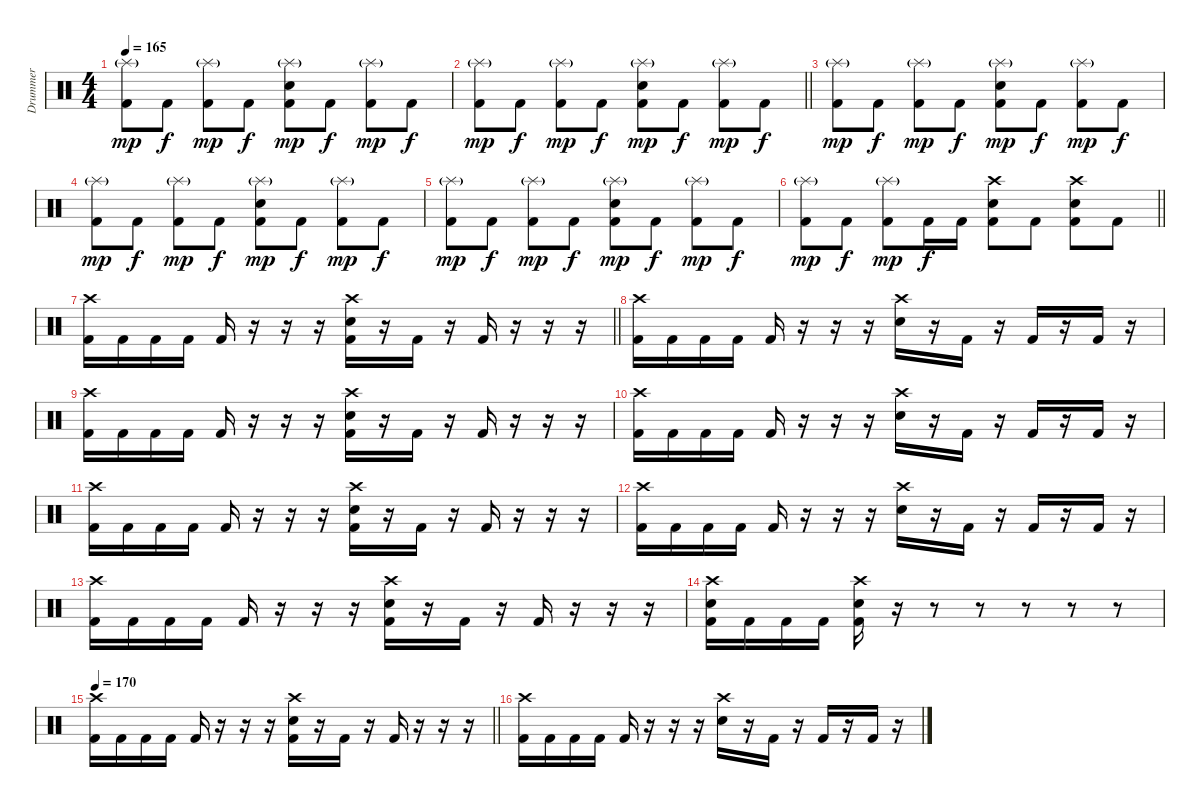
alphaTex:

\track ("Drummer" "Drummer") {instrument percussion}
\staff {score}
\articulation defaults
\ts (4 4)
\tempo 165
\clef neutral
\ks c
("Splash (hit)"{g} "Kick (hit) 2").8{dy mp} "Kick (hit) 2".8{dy f} ("Splash (hit)"{g} "Kick (hit) 2").8{dy mp} "Kick (hit) 2".8{dy f} ("Splash (hit)"{g} "Snare (hit) 2" "Kick (hit) 2").8{dy mp} "Kick (hit) 2".8{dy f} ("Splash (hit)"{g} "Kick (hit) 2").8{dy mp} "Kick (hit) 2".8{dy f} |
\barLineRight lightlight
("Splash (hit)"{g} "Kick (hit) 2").8{dy mp} "Kick (hit) 2".8{dy f} ("Splash (hit)"{g} "Kick (hit) 2").8{dy mp} "Kick (hit) 2".8{dy f} ("Splash (hit)"{g} "Snare (hit) 2" "Kick (hit) 2").8{dy mp} "Kick (hit) 2".8{dy f} ("Splash (hit)"{g} "Kick (hit) 2").8{dy mp} "Kick (hit) 2".8{dy f} |
("Splash (hit)"{g} "Kick (hit) 2").8{dy mp} "Kick (hit) 2".8{dy f} ("Splash (hit)"{g} "Kick (hit) 2").8{dy mp} "Kick (hit) 2".8{dy f} ("Splash (hit)"{g} "Snare (hit) 2" "Kick (hit) 2").8{dy mp} "Kick (hit) 2".8{dy f} ("Splash (hit)"{g} "Kick (hit) 2").8{dy mp} "Kick (hit) 2".8{dy f} |
("Splash (hit)"{g} "Kick (hit) 2").8{dy mp} "Kick (hit) 2".8{dy f} ("Splash (hit)"{g} "Kick (hit) 2").8{dy mp} "Kick (hit) 2".8{dy f} ("Splash (hit)"{g} "Snare (hit) 2" "Kick (hit) 2").8{dy mp} "Kick (hit) 2".8{dy f} ("Splash (hit)"{g} "Kick (hit) 2").8{dy mp} "Kick (hit) 2".8{dy f} |
("Splash (hit)"{g} "Kick (hit) 2").8{dy mp} "Kick (hit) 2".8{dy f} ("Splash (hit)"{g} "Kick (hit) 2").8{dy mp} "Kick (hit) 2".8{dy f} ("Splash (hit)"{g} "Snare (hit) 2" "Kick (hit) 2").8{dy mp} "Kick (hit) 2".8{dy f} ("Splash (hit)"{g} "Kick (hit) 2").8{dy mp} "Kick (hit) 2".8{dy f} |
\barLineRight lightlight
("Splash (hit)"{g} "Kick (hit) 2").8{dy mp} "Kick (hit) 2".8{dy f} ("Splash (hit)"{g} "Kick (hit) 2").8{dy mp} "Kick (hit) 2".16{dy f} "Kick (hit) 2".16 ("Crash high (hit)" "Snare (hit) 2" "Kick (hit) 2").8 "Kick (hit) 2".8 ("Crash high (hit)" "Snare (hit) 2" "Kick (hit) 2").8 "Kick (hit) 2".8 |
\barLineRight lightlight
("Crash high (hit)" "Kick (hit) 2").16 "Kick (hit) 2".16 "Kick (hit) 2".16 "Kick (hit) 2".16 "Kick (hit) 2".16 r.16 r.16 r.16 ("Crash high (hit)" "Snare (hit) 2" "Kick (hit) 2").16 r.16 "Kick (hit) 2".16 r.16 "Kick (hit) 2".16 r.16 r.16 r.16 |
("Crash high (hit)" "Kick (hit) 2").16 "Kick (hit) 2".16 "Kick (hit) 2".16 "Kick (hit) 2".16 "Kick (hit) 2".16 r.16 r.16 r.16 ("Crash high (hit)" "Snare (hit) 2").16 r.16 "Kick (hit) 2".16 r.16 "Kick (hit) 2".16 r.16 "Kick (hit) 2".16 r.16 |
("Crash high (hit)" "Kick (hit) 2").16 "Kick (hit) 2".16 "Kick (hit) 2".16 "Kick (hit) 2".16 "Kick (hit) 2".16 r.16 r.16 r.16 ("Crash high (hit)" "Snare (hit) 2" "Kick (hit) 2").16 r.16 "Kick (hit) 2".16 r.16 "Kick (hit) 2".16 r.16 r.16 r.16 |
("Crash high (hit)" "Kick (hit) 2").16 "Kick (hit) 2".16 "Kick (hit) 2".16 "Kick (hit) 2".16 "Kick (hit) 2".16 r.16 r.16 r.16 ("Crash high (hit)" "Snare (hit) 2").16 r.16 "Kick (hit) 2".16 r.16 "Kick (hit) 2".16 r.16 "Kick (hit) 2".16 r.16 |
("Crash high (hit)" "Kick (hit) 2").16 "Kick (hit) 2".16 "Kick (hit) 2".16 "Kick (hit) 2".16 "Kick (hit) 2".16 r.16 r.16 r.16 ("Crash high (hit)" "Snare (hit) 2" "Kick (hit) 2").16 r.16 "Kick (hit) 2".16 r.16 "Kick (hit) 2".16 r.16 r.16 r.16 |
("Crash high (hit)" "Kick (hit) 2").16 "Kick (hit) 2".16 "Kick (hit) 2".16 "Kick (hit) 2".16 "Kick (hit) 2".16 r.16 r.16 r.16 ("Crash high (hit)" "Snare (hit) 2").16 r.16 "Kick (hit) 2".16 r.16 "Kick (hit) 2".16 r.16 "Kick (hit) 2".16 r.16 |
("Crash high (hit)" "Kick (hit) 2").16 "Kick (hit) 2".16 "Kick (hit) 2".16 "Kick (hit) 2".16 "Kick (hit) 2".16 r.16 r.16 r.16 ("Crash high (hit)" "Snare (hit) 2" "Kick (hit) 2").16 r.16 "Kick (hit) 2".16 r.16 "Kick (hit) 2".16 r.16 r.16 r.16 |
("Crash high (hit)" "Snare (hit) 2" "Kick (hit) 2").16 "Kick (hit) 2".16 "Kick (hit) 2".16 "Kick (hit) 2".16 ("Crash high (hit)" "Snare (hit) 2" "Kick (hit) 2").16 r.16 r.8 r.8 r.8 r.8 r.8 |
\tempo 170
\barLineRight lightlight
("Crash high (hit)" "Kick (hit) 2").16 "Kick (hit) 2".16 "Kick (hit) 2".16 "Kick (hit) 2".16 "Kick (hit) 2".16 r.16 r.16 r.16 ("Crash high (hit)" "Snare (hit) 2" "Kick (hit) 2").16 r.16 "Kick (hit) 2".16 r.16 "Kick (hit) 2".16 r.16 r.16 r.16 |
("Crash high (hit)" "Kick (hit) 2").16 "Kick (hit) 2".16 "Kick (hit) 2".16 "Kick (hit) 2".16 "Kick (hit) 2".16 r.16 r.16 r.16 ("Crash high (hit)" "Snare (hit) 2").16 r.16 "Kick (hit) 2".16 r.16 "Kick (hit) 2".16 r.16 "Kick (hit) 2".16 r.16
